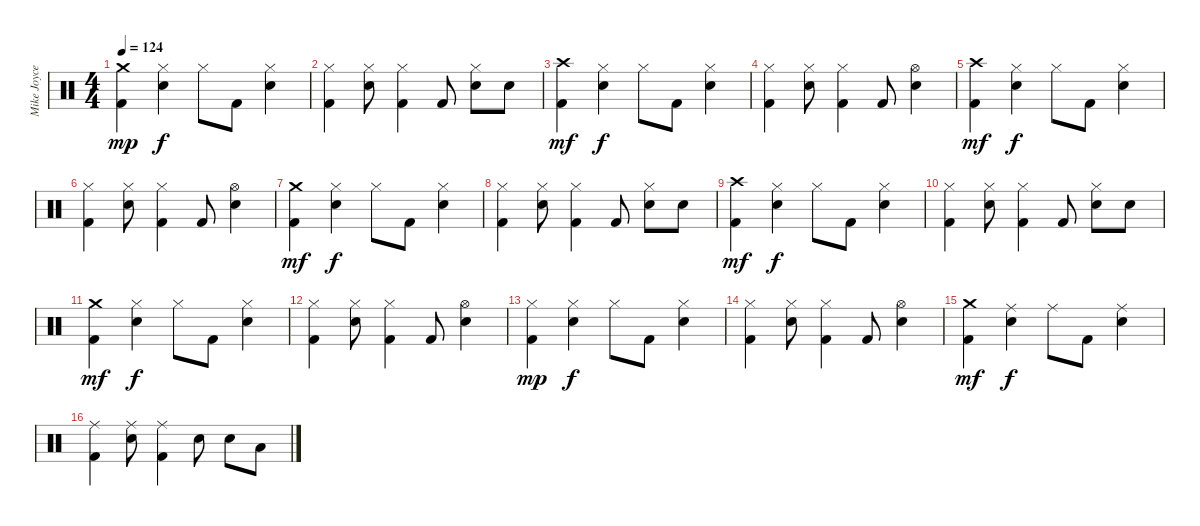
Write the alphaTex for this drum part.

\track ("Mike Joyce" "Mike Joyce") {instrument percussion}
\staff {score}
\articulation defaults
\ts (4 4)
\tempo 124
\clef neutral
\ks c
("Crash medium (hit)" "Kick (hit) 2").4{dy mp} ("Hi-Hat (closed)" "Electric Snare (hit)").4{dy f} "Hi-Hat (closed)".8 "Kick (hit) 2".8 ("Hi-Hat (closed)" "Electric Snare (hit)").4 |
("Hi-Hat (closed)" "Kick (hit) 2").4 ("Hi-Hat (closed)" "Electric Snare (hit)").8 ("Hi-Hat (closed)" "Kick (hit) 2").4 "Kick (hit) 2".8 ("Hi-Hat (closed)" "Electric Snare (hit)").8 "Electric Snare (hit)".8 |
("Crash high (hit)" "Kick (hit) 2").4{dy mf} ("Hi-Hat (closed)" "Electric Snare (hit)").4{dy f} "Hi-Hat (closed)".8 "Kick (hit) 2".8 ("Hi-Hat (closed)" "Electric Snare (hit)").4 |
("Hi-Hat (closed)" "Kick (hit) 2").4 ("Hi-Hat (closed)" "Electric Snare (hit)").8 ("Hi-Hat (closed)" "Kick (hit) 2").4 "Kick (hit) 2".8 ("Hi-Hat (open)" "Electric Snare (hit)").4 |
("Crash high (hit)" "Kick (hit) 2").4{dy mf} ("Hi-Hat (closed)" "Electric Snare (hit)").4{dy f} "Hi-Hat (closed)".8 "Kick (hit) 2".8 ("Hi-Hat (closed)" "Electric Snare (hit)").4 |
("Hi-Hat (closed)" "Kick (hit) 2").4 ("Hi-Hat (closed)" "Electric Snare (hit)").8 ("Hi-Hat (closed)" "Kick (hit) 2").4 "Kick (hit) 2".8 ("Hi-Hat (open)" "Electric Snare (hit)").4 |
("Crash medium (hit)" "Kick (hit) 2").4{dy mf} ("Hi-Hat (closed)" "Electric Snare (hit)").4{dy f} "Hi-Hat (closed)".8 "Kick (hit) 2".8 ("Hi-Hat (closed)" "Electric Snare (hit)").4 |
("Hi-Hat (closed)" "Kick (hit) 2").4 ("Hi-Hat (closed)" "Electric Snare (hit)").8 ("Hi-Hat (closed)" "Kick (hit) 2").4 "Kick (hit) 2".8 ("Hi-Hat (closed)" "Electric Snare (hit)").8 "Electric Snare (hit)".8 |
("Crash high (hit)" "Kick (hit) 2").4{dy mf} ("Hi-Hat (closed)" "Electric Snare (hit)").4{dy f} "Hi-Hat (closed)".8 "Kick (hit) 2".8 ("Hi-Hat (closed)" "Electric Snare (hit)").4 |
("Hi-Hat (closed)" "Kick (hit) 2").4 ("Hi-Hat (closed)" "Electric Snare (hit)").8 ("Hi-Hat (closed)" "Kick (hit) 2").4 "Kick (hit) 2".8 ("Hi-Hat (closed)" "Electric Snare (hit)").8 "Electric Snare (hit)".8 |
("Crash medium (hit)" "Kick (hit) 2").4{dy mf} ("Hi-Hat (closed)" "Electric Snare (hit)").4{dy f} "Hi-Hat (closed)".8 "Kick (hit) 2".8 ("Hi-Hat (closed)" "Electric Snare (hit)").4 |
("Hi-Hat (closed)" "Kick (hit) 2").4 ("Hi-Hat (closed)" "Electric Snare (hit)").8 ("Hi-Hat (closed)" "Kick (hit) 2").4 "Kick (hit) 2".8 ("Hi-Hat (open)" "Electric Snare (hit)").4 |
("Hi-Hat (closed)" "Kick (hit) 2").4{dy mp} ("Hi-Hat (closed)" "Electric Snare (hit)").4{dy f} "Hi-Hat (closed)".8 "Kick (hit) 2".8 ("Hi-Hat (closed)" "Electric Snare (hit)").4 |
("Hi-Hat (closed)" "Kick (hit) 2").4 ("Hi-Hat (closed)" "Electric Snare (hit)").8 ("Hi-Hat (closed)" "Kick (hit) 2").4 "Kick (hit) 2".8 ("Hi-Hat (open)" "Electric Snare (hit)").4 |
("Crash medium (hit)" "Kick (hit) 2").4{dy mf} ("Ride (middle)" "Electric Snare (hit)").4{dy f} "Ride (middle)".8 "Kick (hit) 2".8 ("Ride (middle)" "Electric Snare (hit)").4 |
("Ride (middle)" "Kick (hit) 2").4 ("Ride (middle)" "Electric Snare (hit)").8 ("Ride (middle)" "Kick (hit) 2").4 "Electric Snare (hit)".8 "Electric Snare (hit)".8 "Low Tom (hit)".8
